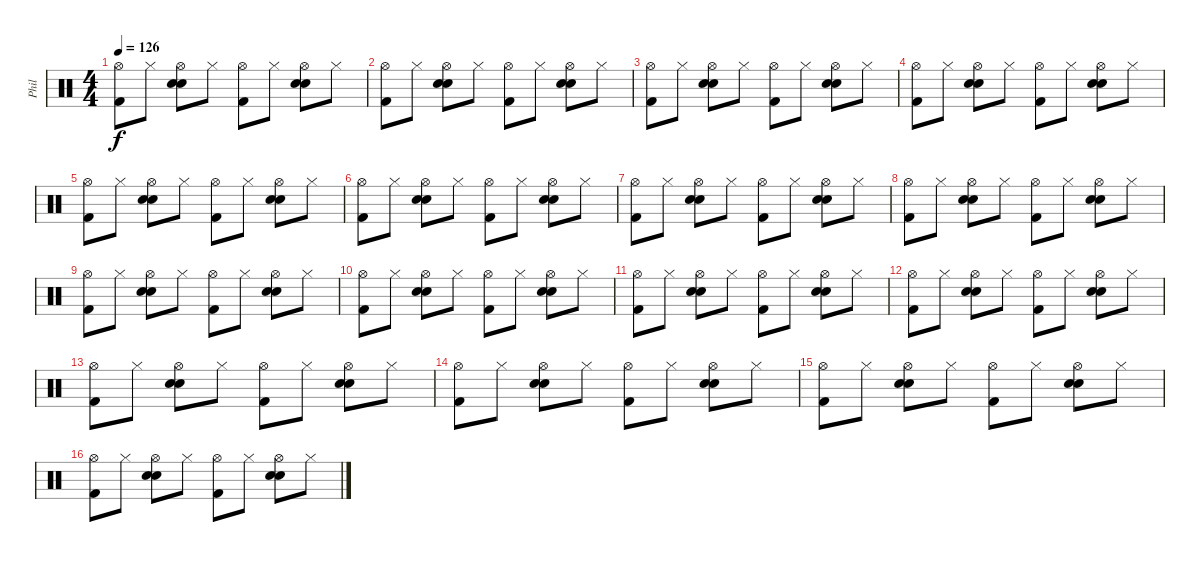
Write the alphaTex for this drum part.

\track ("Phil" "Phil") {instrument percussion}
\staff {score}
\articulation defaults
\ts (4 4)
\tempo 126
\clef neutral
\ks c
("Hi-Hat (open)" "Kick (hit) 2").8{dy f} "Hi-Hat (closed)".8 ("Hi-Hat (open)" "Snare (hit) 2" "Electric Snare (hit)").8 "Hi-Hat (closed)".8 ("Hi-Hat (open)" "Kick (hit) 2").8 "Hi-Hat (closed)".8 ("Hi-Hat (open)" "Snare (hit) 2" "Electric Snare (hit)").8 "Hi-Hat (closed)".8 |
("Hi-Hat (open)" "Kick (hit) 2").8 "Hi-Hat (closed)".8 ("Hi-Hat (open)" "Snare (hit) 2" "Electric Snare (hit)").8 "Hi-Hat (closed)".8 ("Hi-Hat (open)" "Kick (hit) 2").8 "Hi-Hat (closed)".8 ("Hi-Hat (open)" "Snare (hit) 2" "Electric Snare (hit)").8 "Hi-Hat (closed)".8 |
("Hi-Hat (open)" "Kick (hit) 2").8 "Hi-Hat (closed)".8 ("Hi-Hat (open)" "Snare (hit) 2" "Electric Snare (hit)").8 "Hi-Hat (closed)".8 ("Hi-Hat (open)" "Kick (hit) 2").8 "Hi-Hat (closed)".8 ("Hi-Hat (open)" "Snare (hit) 2" "Electric Snare (hit)").8 "Hi-Hat (closed)".8 |
("Hi-Hat (open)" "Kick (hit) 2").8 "Hi-Hat (closed)".8 ("Hi-Hat (open)" "Snare (hit) 2" "Electric Snare (hit)").8 "Hi-Hat (closed)".8 ("Hi-Hat (open)" "Kick (hit) 2").8 "Hi-Hat (closed)".8 ("Hi-Hat (open)" "Snare (hit) 2" "Electric Snare (hit)").8 "Hi-Hat (closed)".8 |
("Hi-Hat (open)" "Kick (hit) 2").8 "Hi-Hat (closed)".8 ("Hi-Hat (open)" "Snare (hit) 2" "Electric Snare (hit)").8 "Hi-Hat (closed)".8 ("Hi-Hat (open)" "Kick (hit) 2").8 "Hi-Hat (closed)".8 ("Hi-Hat (open)" "Snare (hit) 2" "Electric Snare (hit)").8 "Hi-Hat (closed)".8 |
("Hi-Hat (open)" "Kick (hit) 2").8 "Hi-Hat (closed)".8 ("Hi-Hat (open)" "Snare (hit) 2" "Electric Snare (hit)").8 "Hi-Hat (closed)".8 ("Hi-Hat (open)" "Kick (hit) 2").8 "Hi-Hat (closed)".8 ("Hi-Hat (open)" "Snare (hit) 2" "Electric Snare (hit)").8 "Hi-Hat (closed)".8 |
("Hi-Hat (open)" "Kick (hit) 2").8 "Hi-Hat (closed)".8 ("Hi-Hat (open)" "Snare (hit) 2" "Electric Snare (hit)").8 "Hi-Hat (closed)".8 ("Hi-Hat (open)" "Kick (hit) 2").8 "Hi-Hat (closed)".8 ("Hi-Hat (open)" "Snare (hit) 2" "Electric Snare (hit)").8 "Hi-Hat (closed)".8 |
("Hi-Hat (open)" "Kick (hit) 2").8 "Hi-Hat (closed)".8 ("Hi-Hat (open)" "Snare (hit) 2" "Electric Snare (hit)").8 "Hi-Hat (closed)".8 ("Hi-Hat (open)" "Kick (hit) 2").8 "Hi-Hat (closed)".8 ("Hi-Hat (open)" "Snare (hit) 2" "Electric Snare (hit)").8 "Hi-Hat (closed)".8 |
("Hi-Hat (open)" "Kick (hit) 2").8 "Hi-Hat (closed)".8 ("Hi-Hat (open)" "Snare (hit) 2" "Electric Snare (hit)").8 "Hi-Hat (closed)".8 ("Hi-Hat (open)" "Kick (hit) 2").8 "Hi-Hat (closed)".8 ("Hi-Hat (open)" "Snare (hit) 2" "Electric Snare (hit)").8 "Hi-Hat (closed)".8 |
("Hi-Hat (open)" "Kick (hit) 2").8 "Hi-Hat (closed)".8 ("Hi-Hat (open)" "Snare (hit) 2" "Electric Snare (hit)").8 "Hi-Hat (closed)".8 ("Hi-Hat (open)" "Kick (hit) 2").8 "Hi-Hat (closed)".8 ("Hi-Hat (open)" "Snare (hit) 2" "Electric Snare (hit)").8 "Hi-Hat (closed)".8 |
("Hi-Hat (open)" "Kick (hit) 2").8 "Hi-Hat (closed)".8 ("Hi-Hat (open)" "Snare (hit) 2" "Electric Snare (hit)").8 "Hi-Hat (closed)".8 ("Hi-Hat (open)" "Kick (hit) 2").8 "Hi-Hat (closed)".8 ("Hi-Hat (open)" "Snare (hit) 2" "Electric Snare (hit)").8 "Hi-Hat (closed)".8 |
("Hi-Hat (open)" "Kick (hit) 2").8 "Hi-Hat (closed)".8 ("Hi-Hat (open)" "Snare (hit) 2" "Electric Snare (hit)").8 "Hi-Hat (closed)".8 ("Hi-Hat (open)" "Kick (hit) 2").8 "Hi-Hat (closed)".8 ("Hi-Hat (open)" "Snare (hit) 2" "Electric Snare (hit)").8 "Hi-Hat (closed)".8 |
("Hi-Hat (open)" "Kick (hit) 2").8 "Hi-Hat (closed)".8 ("Hi-Hat (open)" "Snare (hit) 2" "Electric Snare (hit)").8 "Hi-Hat (closed)".8 ("Hi-Hat (open)" "Kick (hit) 2").8 "Hi-Hat (closed)".8 ("Hi-Hat (open)" "Snare (hit) 2" "Electric Snare (hit)").8 "Hi-Hat (closed)".8 |
("Hi-Hat (open)" "Kick (hit) 2").8 "Hi-Hat (closed)".8 ("Hi-Hat (open)" "Snare (hit) 2" "Electric Snare (hit)").8 "Hi-Hat (closed)".8 ("Hi-Hat (open)" "Kick (hit) 2").8 "Hi-Hat (closed)".8 ("Hi-Hat (open)" "Snare (hit) 2" "Electric Snare (hit)").8 "Hi-Hat (closed)".8 |
("Hi-Hat (open)" "Kick (hit) 2").8 "Hi-Hat (closed)".8 ("Hi-Hat (open)" "Snare (hit) 2" "Electric Snare (hit)").8 "Hi-Hat (closed)".8 ("Hi-Hat (open)" "Kick (hit) 2").8 "Hi-Hat (closed)".8 ("Hi-Hat (open)" "Snare (hit) 2" "Electric Snare (hit)").8 "Hi-Hat (closed)".8 |
("Hi-Hat (open)" "Kick (hit) 2").8 "Hi-Hat (closed)".8 ("Hi-Hat (open)" "Snare (hit) 2" "Electric Snare (hit)").8 "Hi-Hat (closed)".8 ("Hi-Hat (open)" "Kick (hit) 2").8 "Hi-Hat (closed)".8 ("Hi-Hat (open)" "Snare (hit) 2" "Electric Snare (hit)").8 "Hi-Hat (closed)".8
